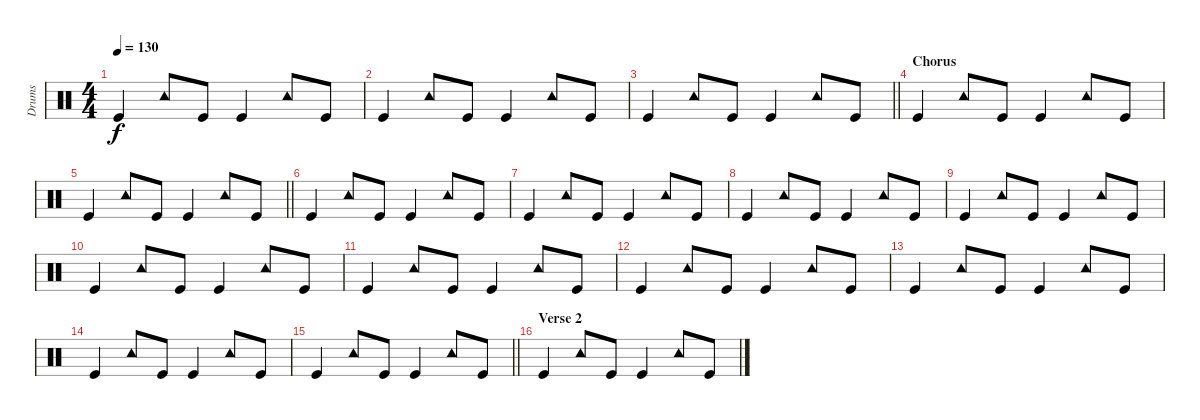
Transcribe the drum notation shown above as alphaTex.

\track ("Drums" "Drums") {instrument percussion}
\staff {score}
\articulation defaults
\ts (4 4)
\tempo 130
\clef neutral
\ks c "Kick (hit)".4{dy f} "Tambourine (hit)".8 "Kick (hit)".8 "Kick (hit)".4 "Tambourine (hit)".8 "Kick (hit)".8
|
"Kick (hit)".4 "Tambourine (hit)".8 "Kick (hit)".8 "Kick (hit)".4 "Tambourine (hit)".8 "Kick (hit)".8 |
\barLineRight lightlight "Kick (hit)".4 "Tambourine (hit)".8 "Kick (hit)".8 "Kick (hit)".4 "Tambourine (hit)".8 "Kick (hit)".8
|
\section ("" "Chorus")
"Kick (hit)".4 "Tambourine (hit)".8 "Kick (hit)".8 "Kick (hit)".4 "Tambourine (hit)".8 "Kick (hit)".8 |
\barLineRight lightlight "Kick (hit)".4 "Tambourine (hit)".8 "Kick (hit)".8 "Kick (hit)".4 "Tambourine (hit)".8 "Kick (hit)".8
|
\section ("" "")
"Kick (hit)".4 "Tambourine (hit)".8 "Kick (hit)".8 "Kick (hit)".4 "Tambourine (hit)".8 "Kick (hit)".8 |
"Kick (hit)".4 "Tambourine (hit)".8 "Kick (hit)".8 "Kick (hit)".4 "Tambourine (hit)".8 "Kick (hit)".8 |
"Kick (hit)".4 "Tambourine (hit)".8 "Kick (hit)".8 "Kick (hit)".4 "Tambourine (hit)".8 "Kick (hit)".8 |
"Kick (hit)".4 "Tambourine (hit)".8 "Kick (hit)".8 "Kick (hit)".4 "Tambourine (hit)".8 "Kick (hit)".8 |
"Kick (hit)".4 "Tambourine (hit)".8 "Kick (hit)".8 "Kick (hit)".4 "Tambourine (hit)".8 "Kick (hit)".8 |
"Kick (hit)".4 "Tambourine (hit)".8 "Kick (hit)".8 "Kick (hit)".4 "Tambourine (hit)".8 "Kick (hit)".8 |
"Kick (hit)".4 "Tambourine (hit)".8 "Kick (hit)".8 "Kick (hit)".4 "Tambourine (hit)".8 "Kick (hit)".8 |
"Kick (hit)".4 "Tambourine (hit)".8 "Kick (hit)".8 "Kick (hit)".4 "Tambourine (hit)".8 "Kick (hit)".8 |
"Kick (hit)".4 "Tambourine (hit)".8 "Kick (hit)".8 "Kick (hit)".4 "Tambourine (hit)".8 "Kick (hit)".8 |
\barLineRight lightlight "Kick (hit)".4 "Tambourine (hit)".8 "Kick (hit)".8 "Kick (hit)".4 "Tambourine (hit)".8 "Kick (hit)".8
|
\section ("" "Verse 2")
"Kick (hit)".4 "Tambourine (hit)".8 "Kick (hit)".8 "Kick (hit)".4 "Tambourine (hit)".8 "Kick (hit)".8
